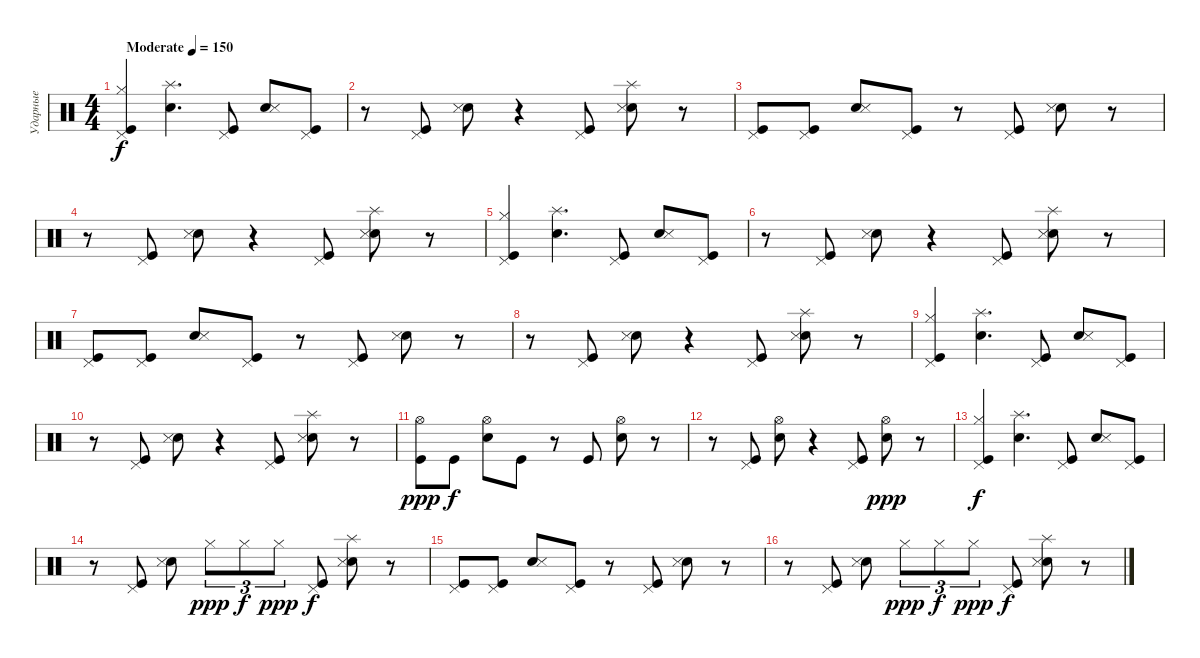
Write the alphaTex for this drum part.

\track ("Ударные" "Ударные") {instrument percussion}
\staff {score}
\articulation defaults
\ts (4 4)
\tempo (150 "Moderate")
\clef neutral
\ks c
("Kick (hit)" "Hi-Hat (closed)" "Pedal Hi-Hat (hit)").4{dy f} ("Snare (hit) 2" "Splash (hit)").4{d} ("Kick (hit)" "Pedal Hi-Hat (hit)").8 ("Snare (hit) 2" "Snare (side stick) 3").8 ("Kick (hit)" "Pedal Hi-Hat (hit)").8 |
r.8 ("Kick (hit)" "Pedal Hi-Hat (hit)").8 ("Snare (hit) 2" "Snare (side stick) 3").8 r.4 ("Kick (hit)" "Pedal Hi-Hat (hit)").8 ("Snare (hit) 2" "Snare (side stick) 3" "Splash (hit)").8 r.8 |
("Kick (hit)" "Pedal Hi-Hat (hit)").8 ("Kick (hit)" "Pedal Hi-Hat (hit)").8 ("Snare (hit) 2" "Snare (side stick) 3").8 ("Kick (hit)" "Pedal Hi-Hat (hit)").8 r.8 ("Kick (hit)" "Pedal Hi-Hat (hit)").8 ("Snare (hit) 2" "Snare (side stick) 3").8 r.8 |
r.8 ("Kick (hit)" "Pedal Hi-Hat (hit)").8 ("Snare (hit) 2" "Snare (side stick) 3").8 r.4 ("Kick (hit)" "Pedal Hi-Hat (hit)").8 ("Snare (hit) 2" "Snare (side stick) 3" "Splash (hit)").8 r.8 |
("Kick (hit)" "Hi-Hat (closed)" "Pedal Hi-Hat (hit)").4 ("Snare (hit) 2" "Splash (hit)").4{d} ("Kick (hit)" "Pedal Hi-Hat (hit)").8 ("Snare (hit) 2" "Snare (side stick) 3").8 ("Kick (hit)" "Pedal Hi-Hat (hit)").8 |
r.8 ("Kick (hit)" "Pedal Hi-Hat (hit)").8 ("Snare (hit) 2" "Snare (side stick) 3").8 r.4 ("Kick (hit)" "Pedal Hi-Hat (hit)").8 ("Snare (hit) 2" "Snare (side stick) 3" "Splash (hit)").8 r.8 |
("Kick (hit)" "Pedal Hi-Hat (hit)").8 ("Kick (hit)" "Pedal Hi-Hat (hit)").8 ("Snare (hit) 2" "Snare (side stick) 3").8 ("Kick (hit)" "Pedal Hi-Hat (hit)").8 r.8 ("Kick (hit)" "Pedal Hi-Hat (hit)").8 ("Snare (hit) 2" "Snare (side stick) 3").8 r.8 |
r.8 ("Kick (hit)" "Pedal Hi-Hat (hit)").8 ("Snare (hit) 2" "Snare (side stick) 3").8 r.4 ("Kick (hit)" "Pedal Hi-Hat (hit)").8 ("Snare (hit) 2" "Snare (side stick) 3" "Splash (hit)").8 r.8 |
("Kick (hit)" "Hi-Hat (closed)" "Pedal Hi-Hat (hit)").4 ("Snare (hit) 2" "Splash (hit)").4{d} ("Kick (hit)" "Pedal Hi-Hat (hit)").8 ("Snare (hit) 2" "Snare (side stick) 3").8 ("Kick (hit)" "Pedal Hi-Hat (hit)").8 |
r.8 ("Kick (hit)" "Pedal Hi-Hat (hit)").8 ("Snare (hit) 2" "Snare (side stick) 3").8 r.4 ("Kick (hit)" "Pedal Hi-Hat (hit)").8 ("Snare (hit) 2" "Snare (side stick) 3" "Splash (hit)").8 r.8 |
("Hi-Hat (open)" "Kick (hit)").8{dy ppp} "Kick (hit)".8{dy f} ("Hi-Hat (open)" "Snare (hit) 2").8 "Kick (hit)".8 r.8 "Kick (hit)".8 ("Hi-Hat (open)" "Snare (hit) 2").8 r.8 |
r.8 ("Kick (hit)" "Pedal Hi-Hat (hit)").8 ("Hi-Hat (open)" "Snare (hit) 2").8 r.4 ("Kick (hit)" "Pedal Hi-Hat (hit)").8 ("Hi-Hat (open)" "Snare (hit) 2").8{dy ppp} r.8 |
("Kick (hit)" "Hi-Hat (closed)" "Pedal Hi-Hat (hit)").4{dy f} ("Snare (hit) 2" "Splash (hit)").4{d} ("Kick (hit)" "Pedal Hi-Hat (hit)").8 ("Snare (hit) 2" "Snare (side stick) 3").8 ("Kick (hit)" "Pedal Hi-Hat (hit)").8 |
r.8 ("Kick (hit)" "Pedal Hi-Hat (hit)").8 ("Snare (hit) 2" "Snare (side stick) 3").8 "Hi-Hat (closed)".8{tu (3 2) dy ppp} "Hi-Hat (closed)".8{tu (3 2) dy f} "Hi-Hat (closed)".8{tu (3 2) dy ppp} ("Kick (hit)" "Pedal Hi-Hat (hit)").8{dy f} ("Snare (hit) 2" "Snare (side stick) 3" "Splash (hit)").8 r.8 |
("Kick (hit)" "Pedal Hi-Hat (hit)").8 ("Kick (hit)" "Pedal Hi-Hat (hit)").8 ("Snare (hit) 2" "Snare (side stick) 3").8 ("Kick (hit)" "Pedal Hi-Hat (hit)").8 r.8 ("Kick (hit)" "Pedal Hi-Hat (hit)").8 ("Snare (hit) 2" "Snare (side stick) 3").8 r.8 |
r.8 ("Kick (hit)" "Pedal Hi-Hat (hit)").8 ("Snare (hit) 2" "Snare (side stick) 3").8 "Hi-Hat (closed)".8{tu (3 2) dy ppp} "Hi-Hat (closed)".8{tu (3 2) dy f} "Hi-Hat (closed)".8{tu (3 2) dy ppp} ("Kick (hit)" "Pedal Hi-Hat (hit)").8{dy f} ("Snare (hit) 2" "Snare (side stick) 3" "Splash (hit)").8 r.8
